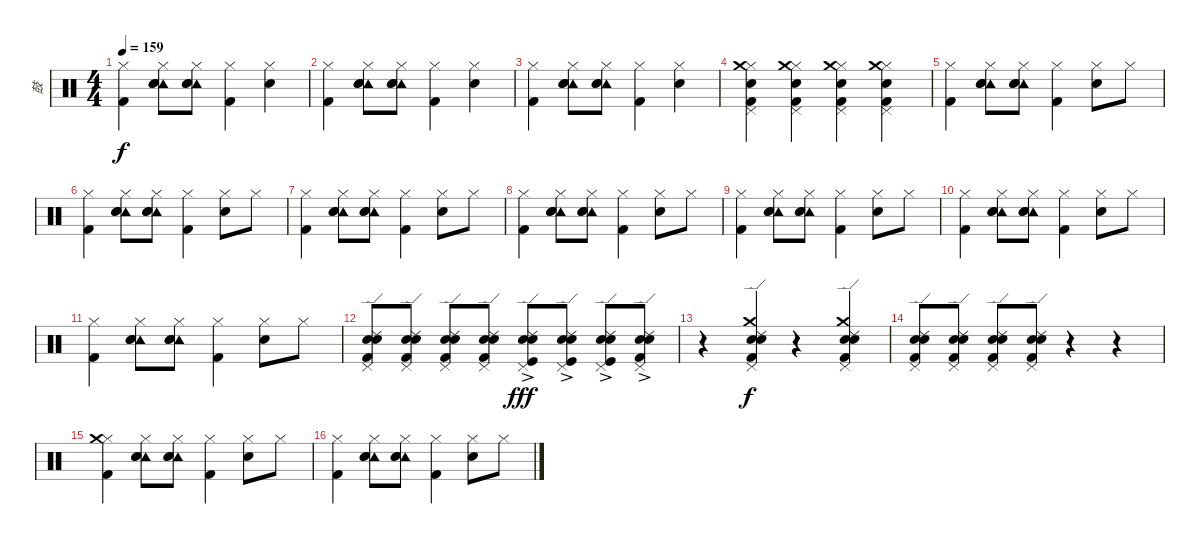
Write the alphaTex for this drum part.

\track ("鼓" "鼓") {instrument percussion}
\staff {score}
\articulation defaults
\ts (4 4)
\tempo 159
\clef neutral
\ks c
("Hi-Hat (closed)" "Kick (hit) 2").4{dy f} ("Hi-Hat (closed)" "Tambourine (hit)" "Snare (hit) 2" "Metronome (bell)").8 ("Hi-Hat (closed)" "Tambourine (hit)" "Snare (hit) 2" "Metronome (bell)").8 ("Hi-Hat (closed)" "Kick (hit) 2").4 ("Hi-Hat (closed)" "Snare (hit) 2").4 |
("Hi-Hat (closed)" "Kick (hit) 2").4 ("Hi-Hat (closed)" "Tambourine (hit)" "Snare (hit) 2" "Metronome (bell)").8 ("Hi-Hat (closed)" "Tambourine (hit)" "Snare (hit) 2" "Metronome (bell)").8 ("Hi-Hat (closed)" "Kick (hit) 2").4 ("Hi-Hat (closed)" "Snare (hit) 2").4 |
("Hi-Hat (closed)" "Kick (hit) 2").4 ("Hi-Hat (closed)" "Tambourine (hit)" "Snare (hit) 2" "Metronome (bell)").8 ("Hi-Hat (closed)" "Tambourine (hit)" "Snare (hit) 2" "Metronome (bell)").8 ("Hi-Hat (closed)" "Kick (hit) 2").4 ("Hi-Hat (closed)" "Snare (hit) 2").4 |
("Hi-Hat (closed)" "Snare (hit) 2" "Kick (hit) 2" "Crash medium (hit)" "Pedal Hi-Hat (hit)").4 ("Hi-Hat (closed)" "Snare (hit) 2" "Kick (hit) 2" "Crash medium (hit)" "Pedal Hi-Hat (hit)").4 ("Hi-Hat (closed)" "Snare (hit) 2" "Kick (hit) 2" "Crash medium (hit)" "Pedal Hi-Hat (hit)").4 ("Hi-Hat (closed)" "Snare (hit) 2" "Kick (hit) 2" "Crash medium (hit)" "Pedal Hi-Hat (hit)").4 |
("Hi-Hat (closed)" "Kick (hit) 2").4 ("Hi-Hat (closed)" "Tambourine (hit)" "Snare (hit) 2" "Metronome (bell)").8 ("Hi-Hat (closed)" "Tambourine (hit)" "Snare (hit) 2" "Metronome (bell)").8 ("Hi-Hat (closed)" "Kick (hit) 2").4 ("Hi-Hat (closed)" "Snare (hit) 2").8 "Hi-Hat (closed)".8 |
("Hi-Hat (closed)" "Kick (hit) 2").4 ("Hi-Hat (closed)" "Tambourine (hit)" "Snare (hit) 2" "Metronome (bell)").8 ("Hi-Hat (closed)" "Tambourine (hit)" "Snare (hit) 2" "Metronome (bell)").8 ("Hi-Hat (closed)" "Kick (hit) 2").4 ("Hi-Hat (closed)" "Snare (hit) 2").8 "Hi-Hat (closed)".8 |
("Hi-Hat (closed)" "Kick (hit) 2").4 ("Hi-Hat (closed)" "Tambourine (hit)" "Snare (hit) 2" "Metronome (bell)").8 ("Hi-Hat (closed)" "Tambourine (hit)" "Snare (hit) 2" "Metronome (bell)").8 ("Hi-Hat (closed)" "Kick (hit) 2").4 ("Hi-Hat (closed)" "Snare (hit) 2").8 "Hi-Hat (closed)".8 |
("Hi-Hat (closed)" "Kick (hit) 2").4 ("Hi-Hat (closed)" "Tambourine (hit)" "Snare (hit) 2" "Metronome (bell)").8 ("Hi-Hat (closed)" "Tambourine (hit)" "Snare (hit) 2" "Metronome (bell)").8 ("Hi-Hat (closed)" "Kick (hit) 2").4 ("Hi-Hat (closed)" "Snare (hit) 2").8 "Hi-Hat (closed)".8 |
("Hi-Hat (closed)" "Kick (hit) 2").4 ("Hi-Hat (closed)" "Tambourine (hit)" "Snare (hit) 2" "Metronome (bell)").8 ("Hi-Hat (closed)" "Tambourine (hit)" "Snare (hit) 2" "Metronome (bell)").8 ("Hi-Hat (closed)" "Kick (hit) 2").4 ("Hi-Hat (closed)" "Snare (hit) 2").8 "Hi-Hat (closed)".8 |
("Hi-Hat (closed)" "Kick (hit) 2").4 ("Hi-Hat (closed)" "Tambourine (hit)" "Snare (hit) 2" "Metronome (bell)").8 ("Hi-Hat (closed)" "Tambourine (hit)" "Snare (hit) 2" "Metronome (bell)").8 ("Hi-Hat (closed)" "Kick (hit) 2").4 ("Hi-Hat (closed)" "Snare (hit) 2").8 "Hi-Hat (closed)".8 |
("Hi-Hat (closed)" "Kick (hit) 2").4 ("Hi-Hat (closed)" "Tambourine (hit)" "Snare (hit) 2" "Metronome (bell)").8 ("Hi-Hat (closed)" "Tambourine (hit)" "Snare (hit) 2" "Metronome (bell)").8 ("Hi-Hat (closed)" "Kick (hit) 2").4 ("Hi-Hat (closed)" "Snare (hit) 2").8 "Hi-Hat (closed)".8 |
("Pedal Hi-Hat (hit)" "Snare (hit) 2" "Electric Snare (hit)" "Kick (hit) 2" "Ride (edge) 2").8 ("Pedal Hi-Hat (hit)" "Snare (hit) 2" "Electric Snare (hit)" "Kick (hit) 2" "Ride (edge) 2").8 ("Pedal Hi-Hat (hit)" "Snare (hit) 2" "Electric Snare (hit)" "Kick (hit) 2" "Ride (edge) 2").8 ("Pedal Hi-Hat (hit)" "Snare (hit) 2" "Electric Snare (hit)" "Kick (hit) 2" "Ride (edge) 2").8 ("Pedal Hi-Hat (hit)"{ac} "Snare (hit) 2" "Electric Snare (hit)" "Kick (hit)" "Ride (edge) 2").8{dy fff} ("Pedal Hi-Hat (hit)"{ac} "Snare (hit) 2" "Electric Snare (hit)" "Kick (hit)" "Ride (edge) 2").8 ("Pedal Hi-Hat (hit)"{ac} "Snare (hit) 2" "Electric Snare (hit)" "Kick (hit)" "Ride (edge) 2").8 ("Pedal Hi-Hat (hit)"{ac} "Snare (hit) 2" "Electric Snare (hit)" "Kick (hit) 2" "Ride (edge) 2").8 |
r.4 ("Pedal Hi-Hat (hit)" "Snare (hit) 2" "Electric Snare (hit)" "Kick (hit) 2" "Ride (edge) 2" "Crash medium (hit)").4{dy f} r.4 ("Pedal Hi-Hat (hit)" "Snare (hit) 2" "Electric Snare (hit)" "Kick (hit) 2" "Ride (edge) 2" "Crash medium (hit)").4 |
("Pedal Hi-Hat (hit)" "Snare (hit) 2" "Electric Snare (hit)" "Kick (hit) 2" "Ride (edge) 2").8 ("Pedal Hi-Hat (hit)" "Snare (hit) 2" "Electric Snare (hit)" "Kick (hit) 2" "Ride (edge) 2").8 ("Pedal Hi-Hat (hit)" "Snare (hit) 2" "Electric Snare (hit)" "Kick (hit) 2" "Ride (edge) 2").8 ("Pedal Hi-Hat (hit)" "Snare (hit) 2" "Electric Snare (hit)" "Kick (hit) 2" "Ride (edge) 2").8 r.4 r.4 |
("Hi-Hat (closed)" "Crash medium (hit)" "Kick (hit) 2").4 ("Hi-Hat (closed)" "Tambourine (hit)" "Snare (hit) 2" "Metronome (bell)").8 ("Hi-Hat (closed)" "Tambourine (hit)" "Snare (hit) 2" "Metronome (bell)").8 ("Hi-Hat (closed)" "Kick (hit) 2").4 ("Hi-Hat (closed)" "Snare (hit) 2").8 "Hi-Hat (closed)".8 |
("Hi-Hat (closed)" "Kick (hit) 2").4 ("Hi-Hat (closed)" "Tambourine (hit)" "Snare (hit) 2" "Metronome (bell)").8 ("Hi-Hat (closed)" "Tambourine (hit)" "Snare (hit) 2" "Metronome (bell)").8 ("Hi-Hat (closed)" "Kick (hit) 2").4 ("Hi-Hat (closed)" "Snare (hit) 2").8 "Hi-Hat (closed)".8
